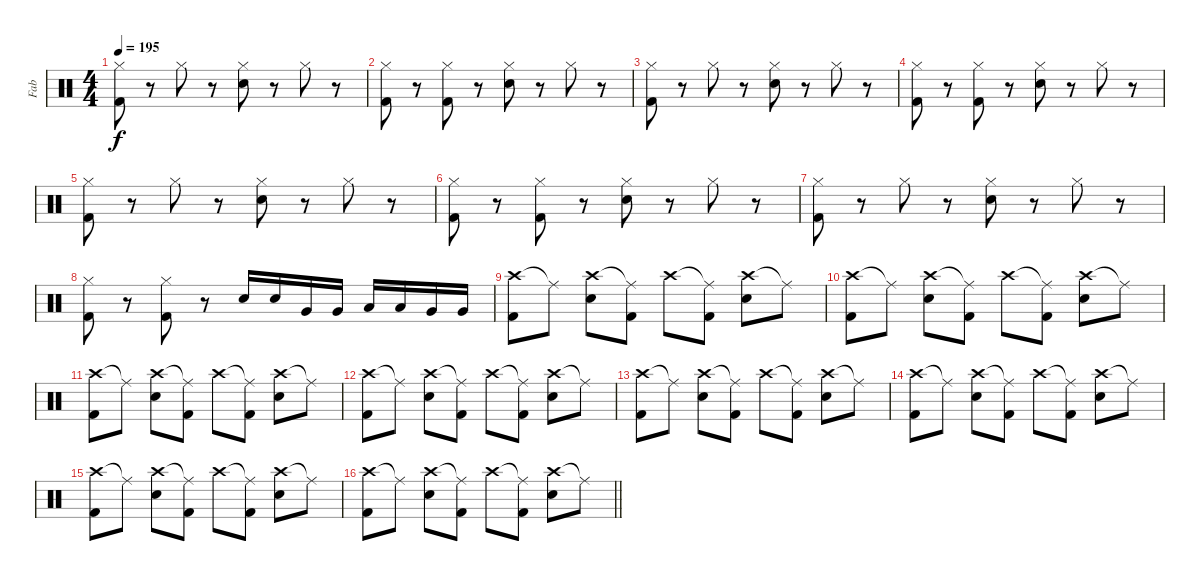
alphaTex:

\track ("Fab" "Fab") {instrument percussion}
\staff {score}
\articulation defaults
\ts (4 4)
\tempo 195
\clef neutral
\ks c
("Hi-Hat (closed)" "Kick (hit) 2").8{dy f} r.8 "Hi-Hat (closed)".8 r.8 ("Hi-Hat (closed)" "Electric Snare (hit)").8 r.8 "Hi-Hat (closed)".8 r.8 |
("Hi-Hat (closed)" "Kick (hit) 2").8 r.8 ("Hi-Hat (closed)" "Kick (hit) 2").8 r.8 ("Hi-Hat (closed)" "Electric Snare (hit)").8 r.8 "Hi-Hat (closed)".8 r.8 |
("Hi-Hat (closed)" "Kick (hit) 2").8 r.8 "Hi-Hat (closed)".8 r.8 ("Hi-Hat (closed)" "Electric Snare (hit)").8 r.8 "Hi-Hat (closed)".8 r.8 |
("Hi-Hat (closed)" "Kick (hit) 2").8 r.8 ("Hi-Hat (closed)" "Kick (hit) 2").8 r.8 ("Hi-Hat (closed)" "Electric Snare (hit)").8 r.8 "Hi-Hat (closed)".8 r.8 |
("Hi-Hat (closed)" "Kick (hit) 2").8 r.8 "Hi-Hat (closed)".8 r.8 ("Hi-Hat (closed)" "Electric Snare (hit)").8 r.8 "Hi-Hat (closed)".8 r.8 |
("Hi-Hat (closed)" "Kick (hit) 2").8 r.8 ("Hi-Hat (closed)" "Kick (hit) 2").8 r.8 ("Hi-Hat (closed)" "Electric Snare (hit)").8 r.8 "Hi-Hat (closed)".8 r.8 |
("Hi-Hat (closed)" "Kick (hit) 2").8 r.8 "Hi-Hat (closed)".8 r.8 ("Hi-Hat (closed)" "Electric Snare (hit)").8 r.8 "Hi-Hat (closed)".8 r.8 |
("Hi-Hat (closed)" "Kick (hit) 2").8 r.8 ("Hi-Hat (closed)" "Kick (hit) 2").8 r.8 "Electric Snare (hit)".16 "Electric Snare (hit)".16 "Very Low Tom (hit)".16 "Very Low Tom (hit)".16 "Low Tom (hit)".16 "Low Tom (hit)".16 "Very Low Tom (hit)".16 "Very Low Tom (hit)".16 |
("Crash high (hit)" "Kick (hit) 2").8 "Ride (middle)"{t}.8 ("Crash high (hit)" "Electric Snare (hit)").8 ("Ride (middle)"{t} "Kick (hit) 2").8 "Crash high (hit)".8 ("Ride (middle)"{t} "Kick (hit) 2").8 ("Crash high (hit)" "Electric Snare (hit)").8 "Ride (middle)"{t}.8 |
("Crash high (hit)" "Kick (hit) 2").8 "Ride (middle)"{t}.8 ("Crash high (hit)" "Electric Snare (hit)").8 ("Ride (middle)"{t} "Kick (hit) 2").8 "Crash high (hit)".8 ("Ride (middle)"{t} "Kick (hit) 2").8 ("Crash high (hit)" "Electric Snare (hit)").8 "Ride (middle)"{t}.8 |
("Crash high (hit)" "Kick (hit) 2").8 "Ride (middle)"{t}.8 ("Crash high (hit)" "Electric Snare (hit)").8 ("Ride (middle)"{t} "Kick (hit) 2").8 "Crash high (hit)".8 ("Ride (middle)"{t} "Kick (hit) 2").8 ("Crash high (hit)" "Electric Snare (hit)").8 "Ride (middle)"{t}.8 |
("Crash high (hit)" "Kick (hit) 2").8 "Ride (middle)"{t}.8 ("Crash high (hit)" "Electric Snare (hit)").8 ("Ride (middle)"{t} "Kick (hit) 2").8 "Crash high (hit)".8 ("Ride (middle)"{t} "Kick (hit) 2").8 ("Crash high (hit)" "Electric Snare (hit)").8 "Ride (middle)"{t}.8 |
("Crash high (hit)" "Kick (hit) 2").8 "Ride (middle)"{t}.8 ("Crash high (hit)" "Electric Snare (hit)").8 ("Ride (middle)"{t} "Kick (hit) 2").8 "Crash high (hit)".8 ("Ride (middle)"{t} "Kick (hit) 2").8 ("Crash high (hit)" "Electric Snare (hit)").8 "Ride (middle)"{t}.8 |
("Crash high (hit)" "Kick (hit) 2").8 "Ride (middle)"{t}.8 ("Crash high (hit)" "Electric Snare (hit)").8 ("Ride (middle)"{t} "Kick (hit) 2").8 "Crash high (hit)".8 ("Ride (middle)"{t} "Kick (hit) 2").8 ("Crash high (hit)" "Electric Snare (hit)").8 "Ride (middle)"{t}.8 |
("Crash high (hit)" "Kick (hit) 2").8 "Ride (middle)"{t}.8 ("Crash high (hit)" "Electric Snare (hit)").8 ("Ride (middle)"{t} "Kick (hit) 2").8 "Crash high (hit)".8 ("Ride (middle)"{t} "Kick (hit) 2").8 ("Crash high (hit)" "Electric Snare (hit)").8 "Ride (middle)"{t}.8 |
\barLineRight lightlight
("Crash high (hit)" "Kick (hit) 2").8 "Ride (middle)"{t}.8 ("Crash high (hit)" "Electric Snare (hit)").8 ("Ride (middle)"{t} "Kick (hit) 2").8 "Crash high (hit)".8 ("Ride (middle)"{t} "Kick (hit) 2").8 ("Crash high (hit)" "Electric Snare (hit)").8 "Ride (middle)"{t}.8
